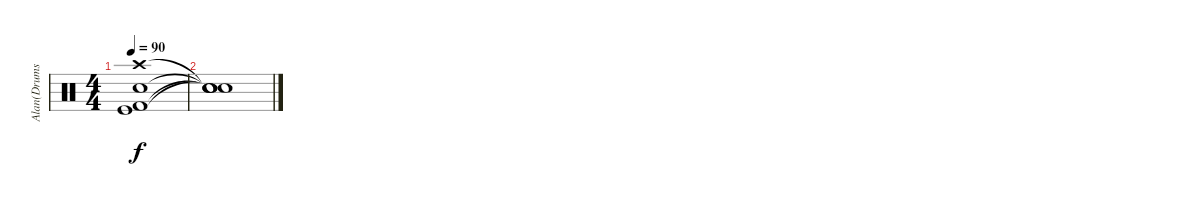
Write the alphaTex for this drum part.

\track ("Alan(Drums)" "Alan(Drums") {instrument percussion}
\staff {score}
\articulation defaults
\ts (4 4)
\tempo 90
\clef neutral
\ks c
("Electric Snare (hit)" "Kick (hit) 2" "Kick (hit)" "Crash high (hit)").1{dy f volume 0} |
("Snare (hit)"{t} "Snare (hit)"{t} "Snare (hit)"{t} "Snare (hit)"{t}).1
